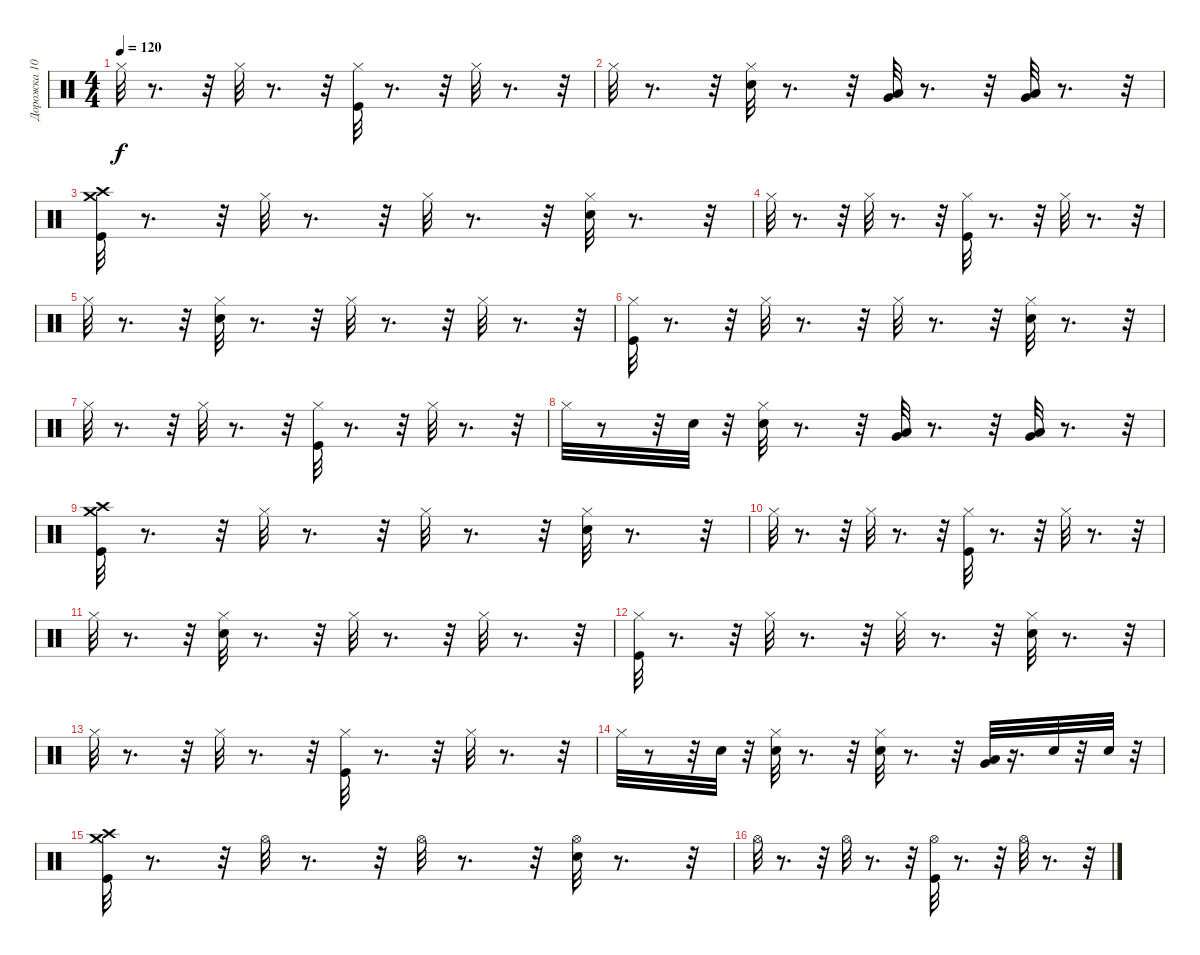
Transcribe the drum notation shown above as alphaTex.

\track ("Дорожка 10" "Дорожка 10") {instrument percussion}
\staff {score}
\articulation defaults
\ts (4 4)
\tempo 120
\clef neutral
\ks c "Hi-Hat (closed)".32{dy f}
r.8{d} r.32 "Hi-Hat (closed)".32 r.8{d} r.32 ("Hi-Hat (closed)" "Kick (hit)").32 r.8{d} r.32 "Hi-Hat (closed)".32 r.8{d} r.32 |
"Hi-Hat (closed)".32 r.8{d} r.32 ("Hi-Hat (closed)" "Snare (hit) 2").32 r.8{d} r.32 ("Low Tom (hit)" "Very Low Tom (hit)").32 r.8{d} r.32 ("Very Low Tom (hit)" "Low Floor Tom (hit)").32 r.8{d} r.32 |
("Kick (hit)" "Crash medium (hit)" "Crash high (hit)").32 r.8{d} r.32 "Hi-Hat (closed)".32 r.8{d} r.32 "Hi-Hat (closed)".32 r.8{d} r.32 ("Hi-Hat (closed)" "Snare (hit) 2").32 r.8{d} r.32 |
"Hi-Hat (closed)".32 r.8{d} r.32 "Hi-Hat (closed)".32 r.8{d} r.32 ("Kick (hit)" "Hi-Hat (closed)").32 r.8{d} r.32 "Hi-Hat (closed)".32 r.8{d} r.32 |
"Hi-Hat (closed)".32 r.8{d} r.32 ("Snare (hit) 2" "Hi-Hat (closed)").32 r.8{d} r.32 "Hi-Hat (closed)".32 r.8{d} r.32 "Hi-Hat (closed)".32 r.8{d} r.32 |
("Kick (hit)" "Hi-Hat (closed)").32 r.8{d} r.32 "Hi-Hat (closed)".32 r.8{d} r.32 "Hi-Hat (closed)".32 r.8{d} r.32 ("Snare (hit) 2" "Hi-Hat (closed)").32 r.8{d} r.32 |
"Hi-Hat (closed)".32 r.8{d} r.32 "Hi-Hat (closed)".32 r.8{d} r.32 ("Kick (hit)" "Hi-Hat (closed)").32 r.8{d} r.32 "Hi-Hat (closed)".32 r.8{d} r.32 |
"Hi-Hat (closed)".32 r.8 r.32 "Snare (hit) 2".32 r.32 ("Snare (hit) 2" "Hi-Hat (closed)").32 r.8{d} r.32 ("Very Low Tom (hit)" "Low Tom (hit)").32 r.8{d} r.32 ("Very Low Tom (hit)" "Low Floor Tom (hit)").32 r.8{d} r.32 |
("Crash high (hit)" "Crash medium (hit)" "Kick (hit)").32 r.8{d} r.32 "Hi-Hat (closed)".32 r.8{d} r.32 "Hi-Hat (closed)".32 r.8{d} r.32 ("Snare (hit) 2" "Hi-Hat (closed)").32 r.8{d} r.32 |
"Hi-Hat (closed)".32 r.8{d} r.32 "Hi-Hat (closed)".32 r.8{d} r.32 ("Hi-Hat (closed)" "Kick (hit)").32 r.8{d} r.32 "Hi-Hat (closed)".32 r.8{d} r.32 |
"Hi-Hat (closed)".32 r.8{d} r.32 ("Snare (hit) 2" "Hi-Hat (closed)").32 r.8{d} r.32 "Hi-Hat (closed)".32 r.8{d} r.32 "Hi-Hat (closed)".32 r.8{d} r.32 |
("Kick (hit)" "Hi-Hat (closed)").32 r.8{d} r.32 "Hi-Hat (closed)".32 r.8{d} r.32 "Hi-Hat (closed)".32 r.8{d} r.32 ("Snare (hit) 2" "Hi-Hat (closed)").32 r.8{d} r.32 |
"Hi-Hat (closed)".32 r.8{d} r.32 "Hi-Hat (closed)".32 r.8{d} r.32 ("Hi-Hat (closed)" "Kick (hit)").32 r.8{d} r.32 "Hi-Hat (closed)".32 r.8{d} r.32 |
"Hi-Hat (closed)".32 r.8 r.32 "Snare (hit) 2".32 r.32 ("Hi-Hat (closed)" "Snare (hit) 2").32 r.8{d} r.32 ("Hi-Hat (closed)" "Snare (hit) 2").32 r.8{d} r.32 ("Low Floor Tom (hit)" "Very Low Tom (hit)").32 r.16{d} "Snare (hit) 2".32 r.32 "Snare (hit) 2".32 r.32 |
("Crash high (hit)" "Crash medium (hit)" "Kick (hit)").32 r.8{d} r.32 "Hi-Hat (open)".32 r.8{d} r.32 "Hi-Hat (open)".32 r.8{d} r.32 ("Snare (hit) 2" "Hi-Hat (open)").32 r.8{d} r.32 |
"Hi-Hat (open)".32 r.8{d} r.32 "Hi-Hat (open)".32 r.8{d} r.32 ("Hi-Hat (open)" "Kick (hit)").32 r.8{d} r.32 "Hi-Hat (open)".32 r.8{d} r.32
